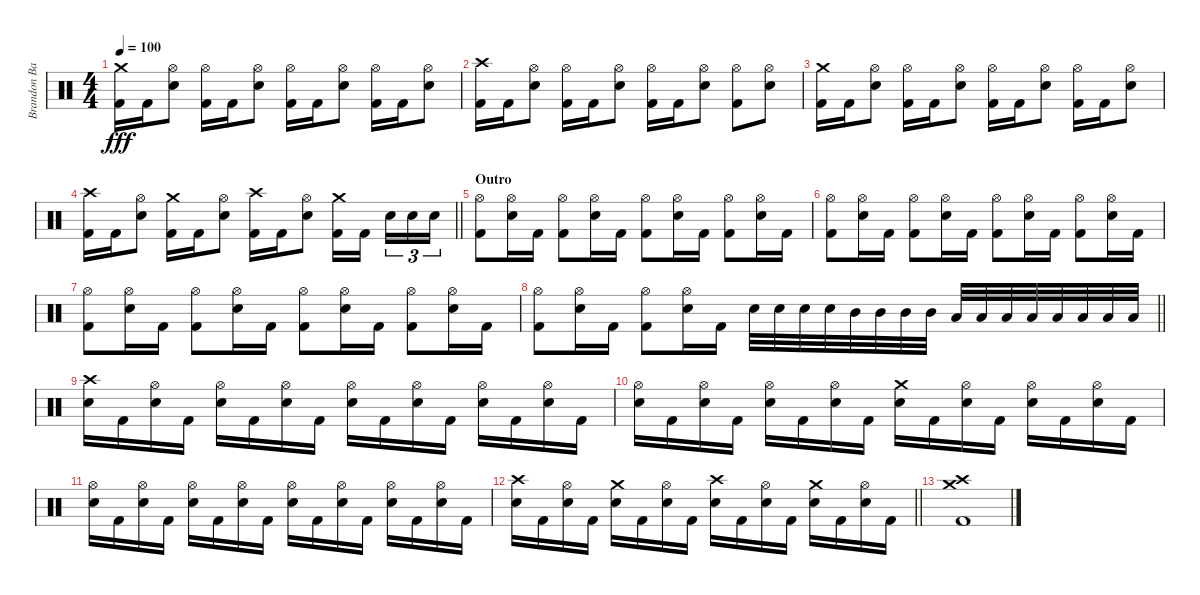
\track ("Brandon Barnes" "Brandon Ba") {instrument percussion}
\staff {score}
\articulation defaults
\ts (4 4)
\tempo 100
\clef neutral
\ks c
("Crash medium (hit)" "Kick (hit) 2").16{dy fff} "Kick (hit) 2".16 ("Hi-Hat (open)" "Snare (hit) 2").8 ("Hi-Hat (open)" "Kick (hit) 2").16 "Kick (hit) 2".16 ("Hi-Hat (open)" "Snare (hit) 2").8 ("Hi-Hat (open)" "Kick (hit) 2").16 "Kick (hit) 2".16 ("Hi-Hat (open)" "Snare (hit) 2").8 ("Hi-Hat (open)" "Kick (hit) 2").16 "Kick (hit) 2".16 ("Hi-Hat (open)" "Snare (hit) 2").8 |
("Crash high (hit)" "Kick (hit) 2").16 "Kick (hit) 2".16 ("Hi-Hat (open)" "Snare (hit) 2").8 ("Hi-Hat (open)" "Kick (hit) 2").16 "Kick (hit) 2".16 ("Hi-Hat (open)" "Snare (hit) 2").8 ("Hi-Hat (open)" "Kick (hit) 2").16 "Kick (hit) 2".16 ("Hi-Hat (open)" "Snare (hit) 2").8 ("Hi-Hat (open)" "Kick (hit) 2").8 ("Hi-Hat (open)" "Snare (hit) 2").8 |
("Crash medium (hit)" "Kick (hit) 2").16 "Kick (hit) 2".16 ("Hi-Hat (open)" "Snare (hit) 2").8 ("Hi-Hat (open)" "Kick (hit) 2").16 "Kick (hit) 2".16 ("Hi-Hat (open)" "Snare (hit) 2").8 ("Hi-Hat (open)" "Kick (hit) 2").16 "Kick (hit) 2".16 ("Hi-Hat (open)" "Snare (hit) 2").8 ("Hi-Hat (open)" "Kick (hit) 2").16 "Kick (hit) 2".16 ("Hi-Hat (open)" "Snare (hit) 2").8 |
\barLineRight lightlight
("Crash high (hit)" "Kick (hit) 2").16 "Kick (hit) 2".16 ("Hi-Hat (open)" "Snare (hit) 2").8 ("Crash medium (hit)" "Kick (hit) 2").16 "Kick (hit) 2".16 ("Hi-Hat (open)" "Snare (hit) 2").8 ("Crash high (hit)" "Kick (hit) 2").16 "Kick (hit) 2".16 ("Hi-Hat (open)" "Snare (hit) 2").8 ("Crash medium (hit)" "Kick (hit) 2").16 "Kick (hit) 2".16{beam splitsecondary} "Snare (hit) 2".16{tu (3 2)} "Snare (hit) 2".16{tu (3 2)} "Snare (hit) 2".16{tu (3 2)} |
\section ("" "Outro")
("Hi-Hat (open)" "Kick (hit) 2").8 ("Hi-Hat (open)" "Snare (hit) 2").16 "Kick (hit) 2".16 ("Hi-Hat (open)" "Kick (hit) 2").8 ("Hi-Hat (open)" "Snare (hit) 2").16 "Kick (hit) 2".16 ("Hi-Hat (open)" "Kick (hit) 2").8 ("Hi-Hat (open)" "Snare (hit) 2").16 "Kick (hit) 2".16 ("Hi-Hat (open)" "Kick (hit) 2").8 ("Hi-Hat (open)" "Snare (hit) 2").16 "Kick (hit) 2".16 |
("Hi-Hat (open)" "Kick (hit) 2").8 ("Hi-Hat (open)" "Snare (hit) 2").16 "Kick (hit) 2".16 ("Hi-Hat (open)" "Kick (hit) 2").8 ("Hi-Hat (open)" "Snare (hit) 2").16 "Kick (hit) 2".16 ("Hi-Hat (open)" "Kick (hit) 2").8 ("Hi-Hat (open)" "Snare (hit) 2").16 "Kick (hit) 2".16 ("Hi-Hat (open)" "Kick (hit) 2").8 ("Hi-Hat (open)" "Snare (hit) 2").16 "Kick (hit) 2".16 |
("Hi-Hat (open)" "Kick (hit) 2").8 ("Hi-Hat (open)" "Snare (hit) 2").16 "Kick (hit) 2".16 ("Hi-Hat (open)" "Kick (hit) 2").8 ("Hi-Hat (open)" "Snare (hit) 2").16 "Kick (hit) 2".16 ("Hi-Hat (open)" "Kick (hit) 2").8 ("Hi-Hat (open)" "Snare (hit) 2").16 "Kick (hit) 2".16 ("Hi-Hat (open)" "Kick (hit) 2").8 ("Hi-Hat (open)" "Snare (hit) 2").16 "Kick (hit) 2".16 |
\barLineRight lightlight
("Hi-Hat (open)" "Kick (hit) 2").8 ("Hi-Hat (open)" "Snare (hit) 2").16 "Kick (hit) 2".16 ("Hi-Hat (open)" "Kick (hit) 2").8 ("Hi-Hat (open)" "Snare (hit) 2").16 "Kick (hit) 2".16 "Snare (hit) 2".32 "Snare (hit) 2".32 "Snare (hit) 2".32 "Snare (hit) 2".32 "Mid Tom (hit)".32 "Mid Tom (hit)".32 "Mid Tom (hit)".32 "Mid Tom (hit)".32 "Low Tom (hit)".32 "Low Tom (hit)".32 "Low Tom (hit)".32 "Low Tom (hit)".32 "Low Floor Tom (hit)".32 "Low Floor Tom (hit)".32 "Low Floor Tom (hit)".32 "Low Floor Tom (hit)".32 |
("Crash high (hit)" "Snare (hit) 2").16 "Kick (hit) 2".16 ("Hi-Hat (open)" "Snare (hit) 2").16 "Kick (hit) 2".16 ("Hi-Hat (open)" "Snare (hit) 2").16 "Kick (hit) 2".16 ("Hi-Hat (open)" "Snare (hit) 2").16 "Kick (hit) 2".16 ("Hi-Hat (open)" "Snare (hit) 2").16 "Kick (hit) 2".16 ("Hi-Hat (open)" "Snare (hit) 2").16 "Kick (hit) 2".16 ("Hi-Hat (open)" "Snare (hit) 2").16 "Kick (hit) 2".16 ("Hi-Hat (open)" "Snare (hit) 2").16 "Kick (hit) 2".16 |
("Hi-Hat (open)" "Snare (hit) 2").16 "Kick (hit) 2".16 ("Hi-Hat (open)" "Snare (hit) 2").16 "Kick (hit) 2".16 ("Hi-Hat (open)" "Snare (hit) 2").16 "Kick (hit) 2".16 ("Hi-Hat (open)" "Snare (hit) 2").16 "Kick (hit) 2".16 ("Crash medium (hit)" "Snare (hit) 2").16 "Kick (hit) 2".16 ("Hi-Hat (open)" "Snare (hit) 2").16 "Kick (hit) 2".16 ("Hi-Hat (open)" "Snare (hit) 2").16 "Kick (hit) 2".16 ("Hi-Hat (open)" "Snare (hit) 2").16 "Kick (hit) 2".16 |
("Hi-Hat (open)" "Snare (hit) 2").16 "Kick (hit) 2".16 ("Hi-Hat (open)" "Snare (hit) 2").16 "Kick (hit) 2".16 ("Hi-Hat (open)" "Snare (hit) 2").16 "Kick (hit) 2".16 ("Hi-Hat (open)" "Snare (hit) 2").16 "Kick (hit) 2".16 ("Hi-Hat (open)" "Snare (hit) 2").16 "Kick (hit) 2".16 ("Hi-Hat (open)" "Snare (hit) 2").16 "Kick (hit) 2".16 ("Hi-Hat (open)" "Snare (hit) 2").16 "Kick (hit) 2".16 ("Hi-Hat (open)" "Snare (hit) 2").16 "Kick (hit) 2".16 |
\barLineRight lightlight
("Crash high (hit)" "Snare (hit) 2").16 "Kick (hit) 2".16 ("Hi-Hat (open)" "Snare (hit) 2").16 "Kick (hit) 2".16 ("Crash medium (hit)" "Snare (hit) 2").16 "Kick (hit) 2".16 ("Hi-Hat (open)" "Snare (hit) 2").16 "Kick (hit) 2".16 ("Crash high (hit)" "Snare (hit) 2").16 "Kick (hit) 2".16 ("Hi-Hat (open)" "Snare (hit) 2").16 "Kick (hit) 2".16 ("Crash medium (hit)" "Snare (hit) 2").16 "Kick (hit) 2".16 ("Hi-Hat (open)" "Snare (hit) 2").16 "Kick (hit) 2".16 |
("Crash medium (hit)" "Crash high (hit)" "Kick (hit) 2").1
